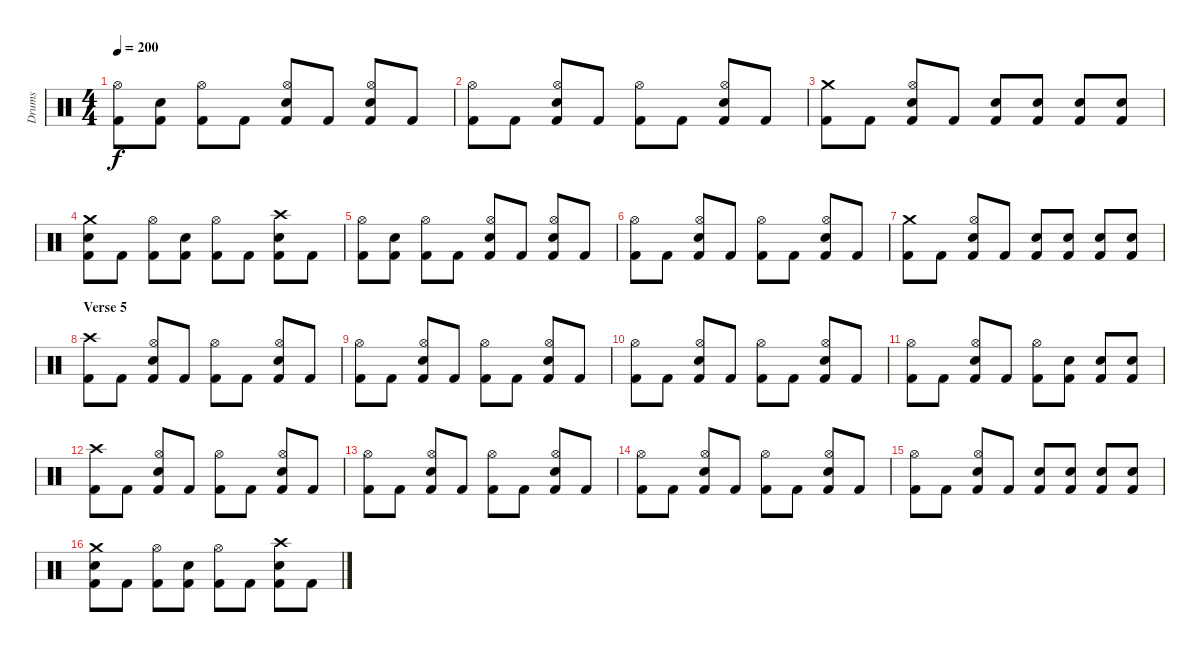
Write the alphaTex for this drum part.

\track ("Drums" "Drums") {instrument percussion}
\staff {score}
\articulation defaults
\ts (4 4)
\tempo 200
\clef neutral
\ks c
("Kick (hit) 2" "Hi-Hat (open)").8{dy f} ("Kick (hit) 2" "Snare (hit) 2").8 ("Kick (hit) 2" "Hi-Hat (open)").8 "Kick (hit) 2".8 ("Kick (hit) 2" "Snare (hit) 2" "Hi-Hat (open)").8 "Kick (hit) 2".8 ("Kick (hit) 2" "Snare (hit) 2" "Hi-Hat (open)").8 "Kick (hit) 2".8 |
("Kick (hit) 2" "Hi-Hat (open)").8 "Kick (hit) 2".8 ("Kick (hit) 2" "Snare (hit) 2" "Hi-Hat (open)").8 "Kick (hit) 2".8 ("Kick (hit) 2" "Hi-Hat (open)").8 "Kick (hit) 2".8 ("Kick (hit) 2" "Snare (hit) 2" "Hi-Hat (open)").8 "Kick (hit) 2".8 |
("Kick (hit) 2" "Crash medium (hit)").8 "Kick (hit) 2".8 ("Kick (hit) 2" "Snare (hit) 2" "Hi-Hat (open)").8 "Kick (hit) 2".8 ("Kick (hit) 2" "Snare (hit) 2").8 ("Kick (hit) 2" "Snare (hit) 2").8 ("Kick (hit) 2" "Snare (hit) 2").8 ("Kick (hit) 2" "Snare (hit) 2").8 |
("Kick (hit) 2" "Snare (hit) 2" "Crash medium (hit)").8 "Kick (hit) 2".8 ("Kick (hit) 2" "Hi-Hat (open)").8 ("Kick (hit) 2" "Snare (hit) 2").8 ("Kick (hit) 2" "Hi-Hat (open)").8 "Kick (hit) 2".8 ("Kick (hit) 2" "Snare (hit) 2" "Crash high (hit)").8 "Kick (hit) 2".8 |
("Kick (hit) 2" "Hi-Hat (open)").8 ("Kick (hit) 2" "Snare (hit) 2").8 ("Kick (hit) 2" "Hi-Hat (open)").8 "Kick (hit) 2".8 ("Kick (hit) 2" "Snare (hit) 2" "Hi-Hat (open)").8 "Kick (hit) 2".8 ("Kick (hit) 2" "Snare (hit) 2" "Hi-Hat (open)").8 "Kick (hit) 2".8 |
("Kick (hit) 2" "Hi-Hat (open)").8 "Kick (hit) 2".8 ("Kick (hit) 2" "Snare (hit) 2" "Hi-Hat (open)").8 "Kick (hit) 2".8 ("Kick (hit) 2" "Hi-Hat (open)").8 "Kick (hit) 2".8 ("Kick (hit) 2" "Snare (hit) 2" "Hi-Hat (open)").8 "Kick (hit) 2".8 |
("Kick (hit) 2" "Crash medium (hit)").8 "Kick (hit) 2".8 ("Kick (hit) 2" "Snare (hit) 2" "Hi-Hat (open)").8 "Kick (hit) 2".8 ("Kick (hit) 2" "Snare (hit) 2").8 ("Kick (hit) 2" "Snare (hit) 2").8 ("Kick (hit) 2" "Snare (hit) 2").8 ("Kick (hit) 2" "Snare (hit) 2").8 |
\section ("" "Verse 5")
("Kick (hit) 2" "Crash high (hit)").8 "Kick (hit) 2".8 ("Kick (hit) 2" "Snare (hit) 2" "Hi-Hat (open)").8 "Kick (hit) 2".8 ("Kick (hit) 2" "Hi-Hat (open)").8 "Kick (hit) 2".8 ("Kick (hit) 2" "Snare (hit) 2" "Hi-Hat (open)").8 "Kick (hit) 2".8 |
("Kick (hit) 2" "Hi-Hat (open)").8 "Kick (hit) 2".8 ("Kick (hit) 2" "Snare (hit) 2" "Hi-Hat (open)").8 "Kick (hit) 2".8 ("Kick (hit) 2" "Hi-Hat (open)").8 "Kick (hit) 2".8 ("Kick (hit) 2" "Snare (hit) 2" "Hi-Hat (open)").8 "Kick (hit) 2".8 |
("Kick (hit) 2" "Hi-Hat (open)").8 "Kick (hit) 2".8 ("Kick (hit) 2" "Snare (hit) 2" "Hi-Hat (open)").8 "Kick (hit) 2".8 ("Kick (hit) 2" "Hi-Hat (open)").8 "Kick (hit) 2".8 ("Kick (hit) 2" "Snare (hit) 2" "Hi-Hat (open)").8 "Kick (hit) 2".8 |
("Kick (hit) 2" "Hi-Hat (open)").8 "Kick (hit) 2".8 ("Kick (hit) 2" "Snare (hit) 2" "Hi-Hat (open)").8 "Kick (hit) 2".8 ("Kick (hit) 2" "Hi-Hat (open)").8 ("Kick (hit) 2" "Snare (hit) 2").8 ("Kick (hit) 2" "Snare (hit) 2").8 ("Kick (hit) 2" "Snare (hit) 2").8 |
("Kick (hit) 2" "Crash high (hit)").8 "Kick (hit) 2".8 ("Kick (hit) 2" "Snare (hit) 2" "Hi-Hat (open)").8 "Kick (hit) 2".8 ("Kick (hit) 2" "Hi-Hat (open)").8 "Kick (hit) 2".8 ("Kick (hit) 2" "Snare (hit) 2" "Hi-Hat (open)").8 "Kick (hit) 2".8 |
("Kick (hit) 2" "Hi-Hat (open)").8 "Kick (hit) 2".8 ("Kick (hit) 2" "Snare (hit) 2" "Hi-Hat (open)").8 "Kick (hit) 2".8 ("Kick (hit) 2" "Hi-Hat (open)").8 "Kick (hit) 2".8 ("Kick (hit) 2" "Snare (hit) 2" "Hi-Hat (open)").8 "Kick (hit) 2".8 |
("Kick (hit) 2" "Hi-Hat (open)").8 "Kick (hit) 2".8 ("Kick (hit) 2" "Snare (hit) 2" "Hi-Hat (open)").8 "Kick (hit) 2".8 ("Kick (hit) 2" "Hi-Hat (open)").8 "Kick (hit) 2".8 ("Kick (hit) 2" "Snare (hit) 2" "Hi-Hat (open)").8 "Kick (hit) 2".8 |
("Kick (hit) 2" "Hi-Hat (open)").8 "Kick (hit) 2".8 ("Kick (hit) 2" "Snare (hit) 2" "Hi-Hat (open)").8 "Kick (hit) 2".8 ("Kick (hit) 2" "Snare (hit) 2").8 ("Kick (hit) 2" "Snare (hit) 2").8 ("Kick (hit) 2" "Snare (hit) 2").8 ("Kick (hit) 2" "Snare (hit) 2").8 |
("Kick (hit) 2" "Snare (hit) 2" "Crash medium (hit)").8 "Kick (hit) 2".8 ("Kick (hit) 2" "Hi-Hat (open)").8 ("Kick (hit) 2" "Snare (hit) 2").8 ("Kick (hit) 2" "Hi-Hat (open)").8 "Kick (hit) 2".8 ("Kick (hit) 2" "Snare (hit) 2" "Crash high (hit)").8 "Kick (hit) 2".8
